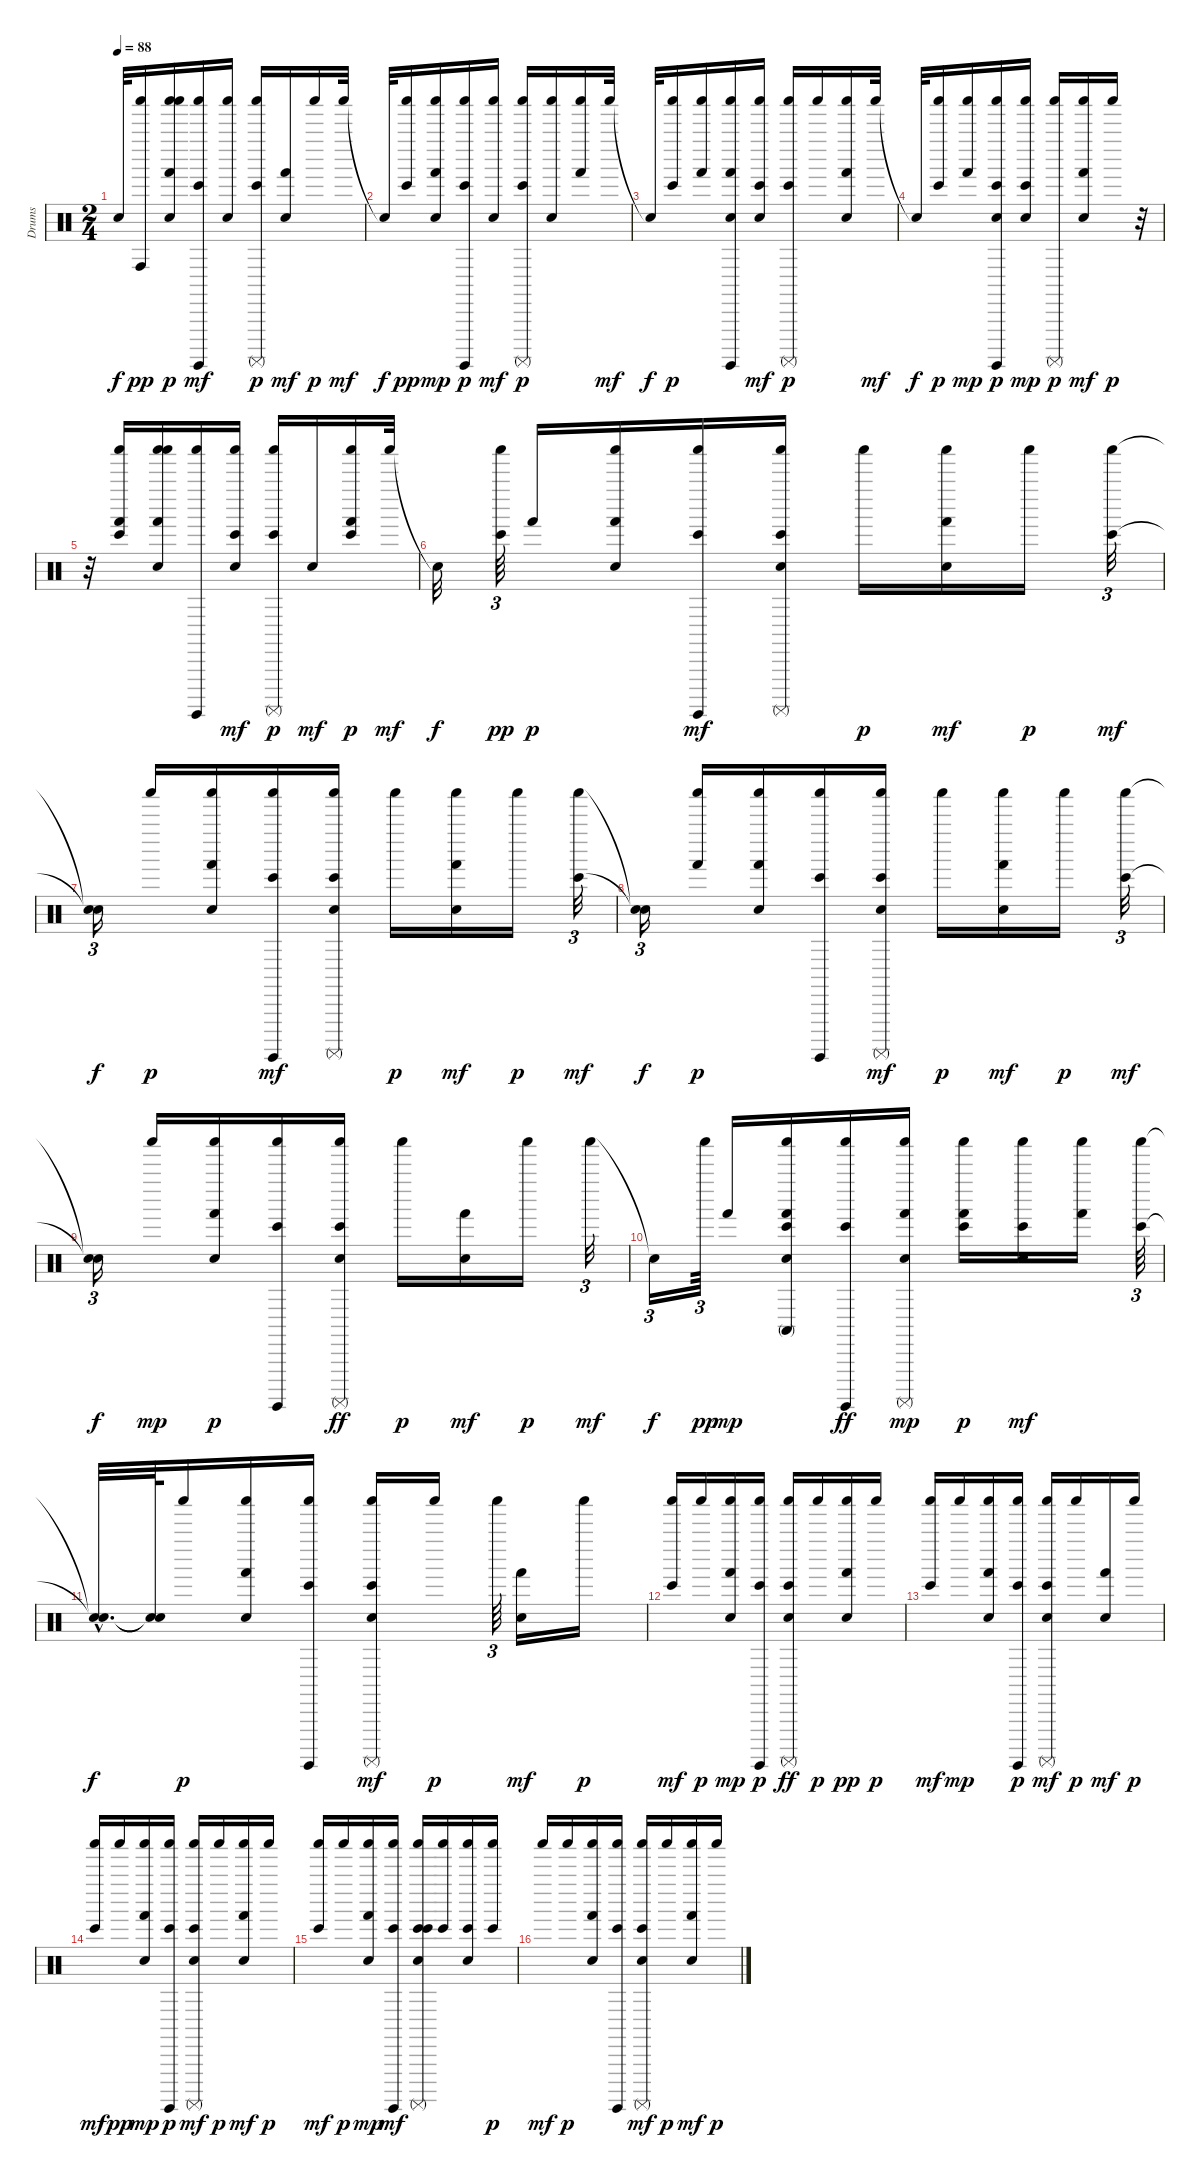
\track ("Drums" "Drums") {instrument percussion}
\staff {score}
\articulation defaults
\ts (2 4)
\tempo 88
\clef neutral
\ks c "Snare (hit)"{t}.32{dy f}
("Shaker (hit)" "Conga high (hit)").16{dy pp} ("Shaker (hit)" "Hand Clap (hit)" "Hand (hit)" "Shaker (hit)").16{dy p} ("Shaker (hit)" "Bongo High (hit)" "Surdo (hit)").16{dy mf} ("Hand Clap (hit)" "Shaker (hit)").16 ("Bongo High (hit)" "Surdo (mute)" "Shaker (hit)").16{dy p} ("Hand Clap (hit)" "Hand (hit)").16{dy mf} "Shaker (hit)".16{dy p} "Shaker (hit)".32{dy mf} |
"Snare (hit)"{t}.32{dy f} ("Bongo High (hit)" "Shaker (hit)").16{dy pp} ("Shaker (hit)" "Hand Clap (hit)" "Hand (hit)").16{dy mp} ("Bongo High (hit)" "Shaker (hit)" "Surdo (hit)").16{dy p} ("Hand Clap (hit)" "Shaker (hit)").16{dy mf} ("Bongo High (hit)" "Surdo (mute)" "Shaker (hit)").16{dy p} ("Hand Clap (hit)" "Shaker (hit)").16 ("Hand (hit)" "Shaker (hit)").16 "Shaker (hit)".32{dy mf} |
"Snare (hit)"{t}.32{dy f} ("Bongo High (hit)" "Shaker (hit)").16{dy p} ("Hand (hit)" "Shaker (hit)").16 ("Hand Clap (hit)" "Hand (hit)" "Shaker (hit)" "Surdo (hit)").16 ("Bongo High (hit)" "Shaker (hit)" "Hand Clap (hit)").16{dy mf} ("Surdo (mute)" "Bongo High (hit)" "Shaker (hit)").16{dy p} "Shaker (hit)".16 ("Hand Clap (hit)" "Hand (hit)" "Shaker (hit)").16 "Shaker (hit)".32{dy mf} |
"Snare (hit)"{t}.32{dy f} ("Bongo High (hit)" "Shaker (hit)").16{dy p} ("Shaker (hit)" "Hand (hit)").16{dy mp} ("Hand Clap (hit)" "Bongo High (hit)" "Shaker (hit)" "Surdo (hit)").16{dy p} ("Shaker (hit)" "Bongo High (hit)" "Hand Clap (hit)").16{dy mp} ("Surdo (mute)" "Shaker (hit)").16{dy p} ("Shaker (hit)" "Hand Clap (hit)" "Hand (hit)").16{dy mf} "Shaker (hit)".16{dy p} r.32 |
r.32 ("Bongo High (hit)" "Shaker (hit)" "Hand (hit)").16 ("Shaker (hit)" "Hand (hit)" "Hand Clap (hit)" "Shaker (hit)").16 ("Shaker (hit)" "Surdo (hit)").16 ("Bongo High (hit)" "Shaker (hit)" "Hand Clap (hit)").16{dy mf} ("Bongo High (hit)" "Surdo (mute)" "Shaker (hit)").16{dy p} "Hand Clap (hit)".16{dy mf} ("Hand (hit)" "Bongo High (hit)" "Shaker (hit)").16{dy p} "Shaker (hit)".32{dy mf} |
"Snare (hit)"{t}.32{dy f} ("Bongo High (hit)" "Shaker (hit)").64{tu (3 2) dy pp} "Hand (hit)".16{dy p} ("Shaker (hit)" "Hand Clap (hit)" "Hand (hit)").16 ("Shaker (hit)" "Bongo High (hit)" "Surdo (hit)").16{dy mf} ("Hand Clap (hit)" "Bongo High (hit)" "Shaker (hit)" "Surdo (mute)").16 "Shaker (hit)".16{dy p} ("Shaker (hit)" "Hand Clap (hit)" "Hand (hit)").16{dy mf} "Shaker (hit)".16{dy p} ("Shaker (hit)" "Bongo High (hit)").32{tu (3 2) dy mf} |
("Snare (hit)"{t} "Snare (hit)"{t}).16{tu (3 2) dy f} "Shaker (hit)".16{dy p} ("Hand Clap (hit)" "Shaker (hit)" "Hand (hit)").16 ("Shaker (hit)" "Surdo (hit)" "Bongo High (hit)").16{dy mf} ("Hand Clap (hit)" "Shaker (hit)" "Bongo High (hit)" "Surdo (mute)").16 "Shaker (hit)".16{dy p} ("Shaker (hit)" "Hand Clap (hit)" "Hand (hit)").16{dy mf} "Shaker (hit)".16{dy p} ("Bongo High (hit)" "Shaker (hit)").32{tu (3 2) dy mf} |
("Snare (hit)"{t} "Snare (hit)"{t}).16{tu (3 2) dy f} ("Shaker (hit)" "Hand (hit)").16{dy p} ("Shaker (hit)" "Hand (hit)" "Hand Clap (hit)").16 ("Surdo (hit)" "Bongo High (hit)" "Shaker (hit)").16 ("Hand Clap (hit)" "Shaker (hit)" "Surdo (mute)" "Bongo High (hit)").16{dy mf} "Shaker (hit)".16{dy p} ("Hand Clap (hit)" "Shaker (hit)" "Hand (hit)").16{dy mf} "Shaker (hit)".16{dy p} ("Shaker (hit)" "Bongo High (hit)").32{tu (3 2) dy mf} |
("Snare (hit)"{t} "Snare (hit)"{t}).16{tu (3 2) dy f} "Shaker (hit)".16{dy mp} ("Hand Clap (hit)" "Hand (hit)" "Shaker (hit)").16{dy p} ("Shaker (hit)" "Bongo High (hit)" "Surdo (hit)").16 ("Hand Clap (hit)" "Shaker (hit)" "Surdo (mute)" "Bongo High (hit)").16{dy ff} "Shaker (hit)".16{dy p} ("Hand Clap (hit)" "Hand (hit)").16{dy mf} "Shaker (hit)".16{dy p} "Shaker (hit)".32{tu (3 2) dy mf} |
"Snare (hit)"{t}.16{tu (3 2) dy f} "Shaker (hit)".64{tu (3 2) dy pp} "Hand (hit)".16{dy mp} ("Bongo High (hit)" "Conga high (mute)" "Shaker (hit)" "Hand (hit)" "Hand Clap (hit)").16 ("Shaker (hit)" "Bongo High (hit)" "Surdo (hit)").16{dy ff} ("Hand Clap (hit)" "Shaker (hit)" "Surdo (mute)" "Hand (hit)").16{dy mp} ("Bongo High (hit)" "Hand (hit)" "Shaker (hit)").16{dy p} ("Shaker (hit)" "Hand Clap (hit)" "Bongo High (hit)").16{dy mf} ("Shaker (hit)" "Hand (hit)").16 ("Shaker (hit)" "Bongo High (hit)").64{tu (3 2)} |
("Snare (hit)"{hac t} "Snare (hit)"{hac t}).32{d dy f} ("Snare (hit)"{t} "Snare (hit)"{t}).64 "Shaker (hit)".16{dy p} ("Shaker (hit)" "Hand (hit)" "Hand Clap (hit)").16 ("Bongo High (hit)" "Shaker (hit)" "Surdo (hit)").16 ("Shaker (hit)" "Bongo High (hit)" "Hand Clap (hit)" "Surdo (mute)").16{dy mf} "Shaker (hit)".16{dy p} "Shaker (hit)".64{tu (3 2)} ("Hand (hit)" "Hand Clap (hit)").16{dy mf} "Shaker (hit)".16{dy p} |
("Shaker (hit)" "Bongo High (hit)").16{dy mf} "Shaker (hit)".16{dy p} ("Shaker (hit)" "Hand Clap (hit)" "Hand (hit)").16{dy mp} ("Bongo High (hit)" "Shaker (hit)" "Surdo (hit)").16{dy p} ("Hand Clap (hit)" "Shaker (hit)" "Bongo High (hit)" "Surdo (mute)").16{dy ff} "Shaker (hit)".16{dy p} ("Hand (hit)" "Hand Clap (hit)" "Shaker (hit)").16{dy pp} "Shaker (hit)".16{dy p} |
("Bongo High (hit)" "Shaker (hit)").16{dy mf} "Shaker (hit)".16{dy mp} ("Hand Clap (hit)" "Shaker (hit)" "Hand (hit)").16 ("Shaker (hit)" "Bongo High (hit)" "Surdo (hit)").16{dy p} ("Hand Clap (hit)" "Shaker (hit)" "Surdo (mute)" "Bongo High (hit)").16{dy mf} "Shaker (hit)".16{dy p} ("Hand Clap (hit)" "Hand (hit)").16{dy mf} "Shaker (hit)".16{dy p} |
("Shaker (hit)" "Bongo High (hit)").16{dy mf} "Shaker (hit)".16{dy pp} ("Hand Clap (hit)" "Shaker (hit)" "Hand (hit)").16{dy mp} ("Shaker (hit)" "Bongo High (hit)" "Surdo (hit)").16{dy p} ("Hand Clap (hit)" "Shaker (hit)" "Surdo (mute)" "Bongo High (hit)").16{dy mf} "Shaker (hit)".16{dy p} ("Shaker (hit)" "Hand Clap (hit)" "Hand (hit)").16{dy mf} "Shaker (hit)".16{dy p} |
("Shaker (hit)" "Bongo High (hit)").16{dy mf} "Shaker (hit)".16{dy p} ("Shaker (hit)" "Hand Clap (hit)" "Hand (hit)").16{dy mp} ("Surdo (hit)" "Shaker (hit)" "Bongo High (hit)").16{dy mf} ("Hand Clap (hit)" "Shaker (hit)" "Surdo (mute)" "Bongo High (hit)" "Bongo High (hit)").16 ("Shaker (hit)" "Bongo High (hit)").16 ("Shaker (hit)" "Bongo High (hit)" "Hand Clap (hit)").16 ("Bongo High (hit)" "Shaker (hit)").16{dy p} |
"Shaker (hit)".16{dy mf} "Shaker (hit)".16{dy p} ("Shaker (hit)" "Hand (hit)" "Hand Clap (hit)").16 ("Bongo High (hit)" "Surdo (hit)" "Shaker (hit)").16 ("Shaker (hit)" "Surdo (mute)" "Hand Clap (hit)" "Bongo High (hit)").16{dy mf} "Shaker (hit)".16{dy p} ("Hand (hit)" "Shaker (hit)" "Hand Clap (hit)").16{dy mf} "Shaker (hit)".16{dy p}
